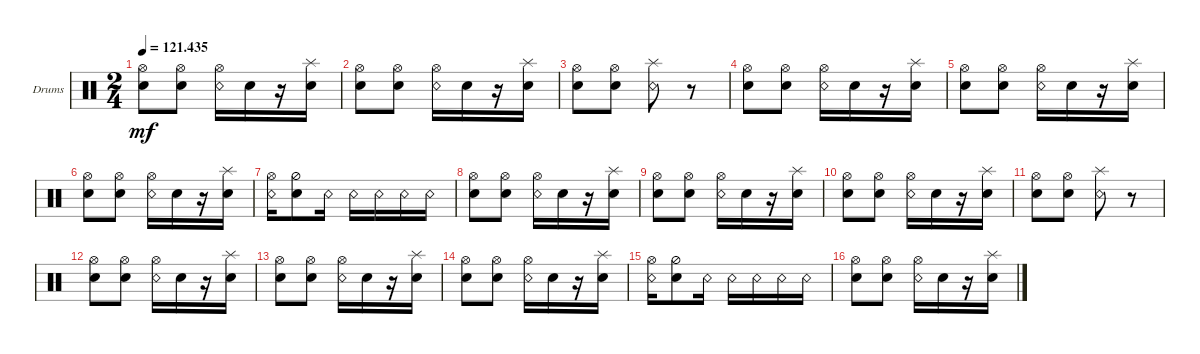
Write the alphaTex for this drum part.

\bracketExtendMode groupsimilarinstruments
\firstSystemTrackNameOrientation horizontal
\otherSystemsTrackNameOrientation horizontal
\track ("Drumkit" "Drums") {instrument percussion}
\staff {score}
\articulation defaults
\ts (2 4)
\tempo
121.435
\accidentals auto
\clef neutral
\ottava regular
\simile none
\ks c
("Snare (hit) 2" "Hi-Hat (open)").8{dy mf} ("Snare (hit) 2" "Hi-Hat (open)").8 ("Snare (rim shot)" "Hi-Hat (open)").16 "Snare (hit) 2".16 r.16 ("Snare (hit) 2" "Splash (hit)").16 |
("Snare (hit) 2" "Hi-Hat (open)").8 ("Snare (hit) 2" "Hi-Hat (open)").8 ("Snare (rim shot)" "Hi-Hat (open)").16 "Snare (hit) 2".16 r.16 ("Snare (hit) 2" "Splash (hit)").16 |
("Snare (hit) 2" "Hi-Hat (open)").8 ("Snare (hit) 2" "Hi-Hat (open)").8 ("Snare (rim shot)" "Splash (hit)").8 r.8 |
("Snare (hit) 2" "Hi-Hat (open)").8 ("Snare (hit) 2" "Hi-Hat (open)").8 ("Snare (rim shot)" "Hi-Hat (open)").16 "Snare (hit) 2".16 r.16 ("Snare (hit) 2" "Splash (hit)").16 |
("Snare (hit) 2" "Hi-Hat (open)").8 ("Snare (hit) 2" "Hi-Hat (open)").8 ("Snare (rim shot)" "Hi-Hat (open)").16 "Snare (hit) 2".16 r.16 ("Snare (hit) 2" "Splash (hit)").16 |
("Snare (hit) 2" "Hi-Hat (open)").8 ("Snare (hit) 2" "Hi-Hat (open)").8 ("Snare (rim shot)" "Hi-Hat (open)").16 "Snare (hit) 2".16 r.16 ("Snare (hit) 2" "Splash (hit)").16 |
("Snare (rim shot)" "Hi-Hat (open)").16 ("Snare (hit) 2" "Hi-Hat (half)").8 "Snare (rim shot)".16 "Snare (rim shot)".16 "Snare (rim shot)".16 "Snare (rim shot)".16 "Snare (rim shot)".16 |
("Snare (hit) 2" "Hi-Hat (open)").8 ("Snare (hit) 2" "Hi-Hat (open)").8 ("Snare (rim shot)" "Hi-Hat (open)").16 "Snare (hit) 2".16 r.16 ("Snare (hit) 2" "Splash (hit)").16 |
("Snare (hit) 2" "Hi-Hat (open)").8 ("Snare (hit) 2" "Hi-Hat (open)").8 ("Snare (rim shot)" "Hi-Hat (open)").16 "Snare (hit) 2".16 r.16 ("Snare (hit) 2" "Splash (hit)").16 |
("Snare (hit) 2" "Hi-Hat (open)").8 ("Snare (hit) 2" "Hi-Hat (open)").8 ("Snare (rim shot)" "Hi-Hat (open)").16 "Snare (hit) 2".16 r.16 ("Snare (hit) 2" "Splash (hit)").16 |
("Snare (hit) 2" "Hi-Hat (open)").8 ("Snare (hit) 2" "Hi-Hat (open)").8 ("Snare (rim shot)" "Splash (hit)").8 r.8 |
("Snare (hit) 2" "Hi-Hat (open)").8 ("Snare (hit) 2" "Hi-Hat (open)").8 ("Snare (rim shot)" "Hi-Hat (open)").16 "Snare (hit) 2".16 r.16 ("Snare (hit) 2" "Splash (hit)").16 |
("Snare (hit) 2" "Hi-Hat (open)").8 ("Snare (hit) 2" "Hi-Hat (open)").8 ("Snare (rim shot)" "Hi-Hat (open)").16 "Snare (hit) 2".16 r.16 ("Snare (hit) 2" "Splash (hit)").16 |
("Snare (hit) 2" "Hi-Hat (open)").8 ("Snare (hit) 2" "Hi-Hat (open)").8 ("Snare (rim shot)" "Hi-Hat (open)").16 "Snare (hit) 2".16 r.16 ("Snare (hit) 2" "Splash (hit)").16 |
("Snare (rim shot)" "Hi-Hat (open)").16 ("Snare (hit) 2" "Hi-Hat (half)").8 "Snare (rim shot)".16 "Snare (rim shot)".16 "Snare (rim shot)".16 "Snare (rim shot)".16 "Snare (rim shot)".16 |
("Snare (hit) 2" "Hi-Hat (open)").8 ("Snare (hit) 2" "Hi-Hat (open)").8 ("Snare (rim shot)" "Hi-Hat (open)").16 "Snare (hit) 2".16 r.16 ("Snare (hit) 2" "Splash (hit)").16
